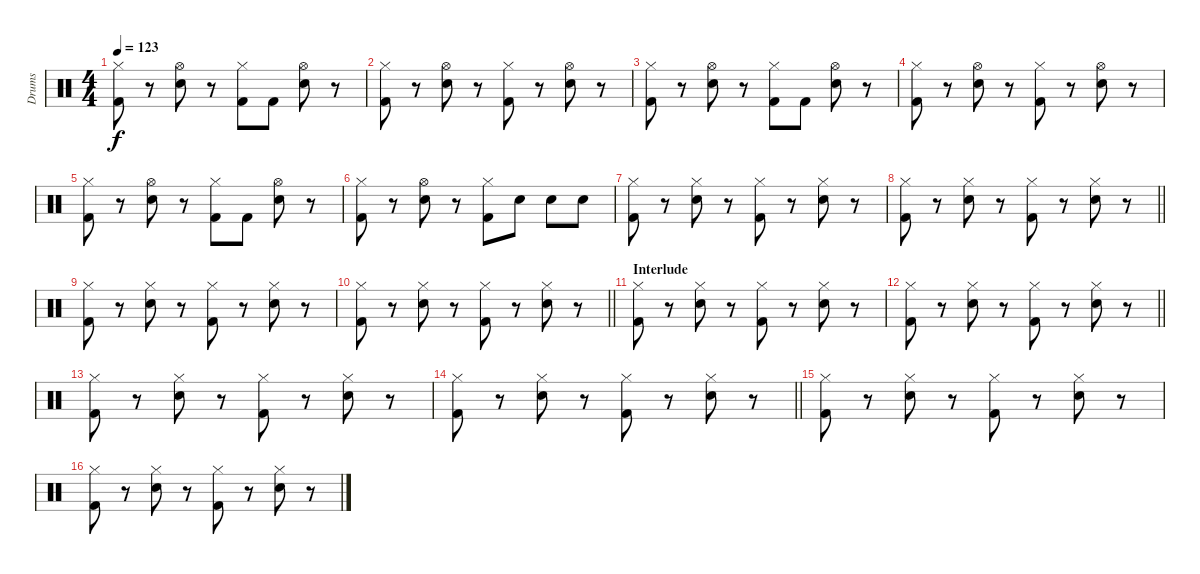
\track ("Drums" "Drums") {instrument percussion}
\staff {score}
\articulation defaults
\ts (4 4)
\tempo 123
\clef neutral
\ks c
("Hi-Hat (closed)" "Kick (hit) 2").8{dy f} r.8 ("Hi-Hat (open)" "Snare (hit) 2").8 r.8 ("Hi-Hat (closed)" "Kick (hit) 2").8 "Kick (hit) 2".8 ("Hi-Hat (open)" "Snare (hit) 2").8 r.8 |
("Hi-Hat (closed)" "Kick (hit) 2").8 r.8 ("Hi-Hat (open)" "Snare (hit) 2").8 r.8 ("Hi-Hat (closed)" "Kick (hit) 2").8 r.8 ("Hi-Hat (open)" "Snare (hit) 2").8 r.8 |
("Hi-Hat (closed)" "Kick (hit) 2").8 r.8 ("Hi-Hat (open)" "Snare (hit) 2").8 r.8 ("Hi-Hat (closed)" "Kick (hit) 2").8 "Kick (hit) 2".8 ("Hi-Hat (open)" "Snare (hit) 2").8 r.8 |
("Hi-Hat (closed)" "Kick (hit) 2").8 r.8 ("Hi-Hat (open)" "Snare (hit) 2").8 r.8 ("Hi-Hat (closed)" "Kick (hit) 2").8 r.8 ("Hi-Hat (open)" "Snare (hit) 2").8 r.8 |
("Hi-Hat (closed)" "Kick (hit) 2").8 r.8 ("Hi-Hat (open)" "Snare (hit) 2").8 r.8 ("Hi-Hat (closed)" "Kick (hit) 2").8 "Kick (hit) 2".8 ("Hi-Hat (open)" "Snare (hit) 2").8 r.8 |
("Hi-Hat (closed)" "Kick (hit) 2").8 r.8 ("Hi-Hat (open)" "Snare (hit) 2").8 r.8 ("Hi-Hat (closed)" "Kick (hit) 2").8 "Snare (hit) 2".8 "Snare (hit) 2".8 "Snare (hit) 2".8 |
("Hi-Hat (closed)" "Kick (hit) 2").8 r.8 ("Hi-Hat (closed)" "Snare (hit) 2").8 r.8 ("Hi-Hat (closed)" "Kick (hit) 2").8 r.8 ("Hi-Hat (closed)" "Snare (hit) 2").8 r.8 |
\barLineRight lightlight
("Hi-Hat (closed)" "Kick (hit) 2").8 r.8 ("Hi-Hat (closed)" "Snare (hit) 2").8 r.8 ("Hi-Hat (closed)" "Kick (hit) 2").8 r.8 ("Hi-Hat (closed)" "Snare (hit) 2").8 r.8 |
("Hi-Hat (closed)" "Kick (hit) 2").8 r.8 ("Hi-Hat (closed)" "Snare (hit) 2").8 r.8 ("Hi-Hat (closed)" "Kick (hit) 2").8 r.8 ("Hi-Hat (closed)" "Snare (hit) 2").8 r.8 |
\barLineRight lightlight
("Hi-Hat (closed)" "Kick (hit) 2").8 r.8 ("Hi-Hat (closed)" "Snare (hit) 2").8 r.8 ("Hi-Hat (closed)" "Kick (hit) 2").8 r.8 ("Hi-Hat (closed)" "Snare (hit) 2").8 r.8 |
\section ("" "Interlude")
("Hi-Hat (closed)" "Kick (hit) 2").8 r.8 ("Hi-Hat (closed)" "Snare (hit) 2").8 r.8 ("Hi-Hat (closed)" "Kick (hit) 2").8 r.8 ("Hi-Hat (closed)" "Snare (hit) 2").8 r.8 |
\barLineRight lightlight
("Hi-Hat (closed)" "Kick (hit) 2").8 r.8 ("Hi-Hat (closed)" "Snare (hit) 2").8 r.8 ("Hi-Hat (closed)" "Kick (hit) 2").8 r.8 ("Hi-Hat (closed)" "Snare (hit) 2").8 r.8 |
("Hi-Hat (closed)" "Kick (hit) 2").8 r.8 ("Hi-Hat (closed)" "Snare (hit) 2").8 r.8 ("Hi-Hat (closed)" "Kick (hit) 2").8 r.8 ("Hi-Hat (closed)" "Snare (hit) 2").8 r.8 |
\barLineRight lightlight
("Hi-Hat (closed)" "Kick (hit) 2").8 r.8 ("Hi-Hat (closed)" "Snare (hit) 2").8 r.8 ("Hi-Hat (closed)" "Kick (hit) 2").8 r.8 ("Hi-Hat (closed)" "Snare (hit) 2").8 r.8 |
("Hi-Hat (closed)" "Kick (hit) 2").8 r.8 ("Hi-Hat (closed)" "Snare (hit) 2").8 r.8 ("Hi-Hat (closed)" "Kick (hit) 2").8 r.8 ("Hi-Hat (closed)" "Snare (hit) 2").8 r.8 |
("Hi-Hat (closed)" "Kick (hit) 2").8 r.8 ("Hi-Hat (closed)" "Snare (hit) 2").8 r.8 ("Hi-Hat (closed)" "Kick (hit) 2").8 r.8 ("Hi-Hat (closed)" "Snare (hit) 2").8 r.8
